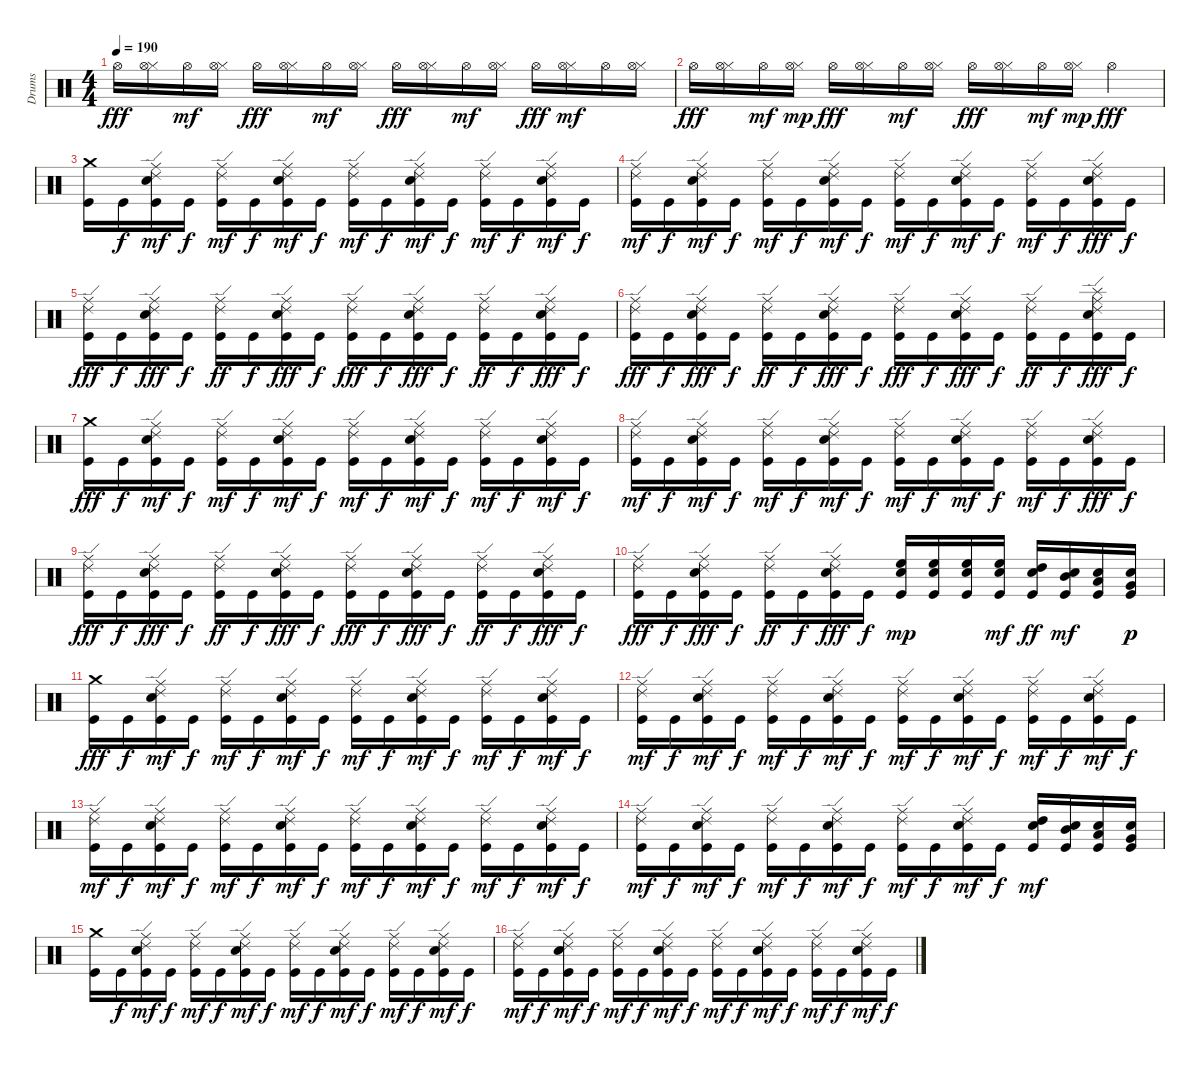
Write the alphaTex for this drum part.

\track ("Drums" "Drums") {instrument percussion}
\staff {score}
\articulation defaults
\ts (4 4)
\tempo 190
\clef neutral
\ks c "Hi-Hat (open)".16{dy fff}
("Hi-Hat (closed)" "Hi-Hat (open)").16 "Hi-Hat (open)".16{dy mf} ("Hi-Hat (closed)" "Hi-Hat (open)").16 "Hi-Hat (open)".16{dy fff} ("Hi-Hat (closed)" "Hi-Hat (open)").16 "Hi-Hat (open)".16{dy mf} ("Hi-Hat (closed)" "Hi-Hat (open)").16 "Hi-Hat (open)".16{dy fff} ("Hi-Hat (closed)" "Hi-Hat (open)").16 "Hi-Hat (open)".16{dy mf} ("Hi-Hat (closed)" "Hi-Hat (open)").16 "Hi-Hat (open)".16{dy fff} ("Hi-Hat (closed)" "Hi-Hat (open)").16{dy mf} "Hi-Hat (open)".16 ("Hi-Hat (closed)" "Hi-Hat (open)").16 |
"Hi-Hat (open)".16{dy fff} ("Hi-Hat (closed)" "Hi-Hat (open)").16 "Hi-Hat (open)".16{dy mf} ("Hi-Hat (closed)" "Hi-Hat (open)").16{dy mp} "Hi-Hat (open)".16{dy fff} ("Hi-Hat (closed)" "Hi-Hat (open)").16 "Hi-Hat (open)".16{dy mf} ("Hi-Hat (closed)" "Hi-Hat (open)").16 "Hi-Hat (open)".16{dy fff} ("Hi-Hat (closed)" "Hi-Hat (open)").16 "Hi-Hat (open)".16{dy mf} ("Hi-Hat (closed)" "Hi-Hat (open)").16{dy mp} "Hi-Hat (open)".4{dy fff} |
("Kick (hit)" "Crash medium (hit)").16 "Kick (hit)".16{dy f} ("Electric Snare (hit)" "Kick (hit)" "Ride (edge) 2" "Ride (middle)").16{dy mf} "Kick (hit)".16{dy f} ("Kick (hit)" "Ride (edge) 2" "Ride (middle)").16{dy mf} "Kick (hit)".16{dy f} ("Electric Snare (hit)" "Kick (hit)" "Ride (edge) 2" "Ride (middle)").16{dy mf} "Kick (hit)".16{dy f} ("Kick (hit)" "Ride (edge) 2" "Ride (middle)").16{dy mf} "Kick (hit)".16{dy f} ("Electric Snare (hit)" "Kick (hit)" "Ride (edge) 2" "Ride (middle)").16{dy mf} "Kick (hit)".16{dy f} ("Kick (hit)" "Ride (edge) 2" "Ride (middle)").16{dy mf} "Kick (hit)".16{dy f} ("Electric Snare (hit)" "Kick (hit)" "Ride (edge) 2" "Ride (middle)").16{dy mf} "Kick (hit)".16{dy f} |
("Kick (hit)" "Ride (middle)" "Ride (edge) 2").16{dy mf} "Kick (hit)".16{dy f} ("Ride (edge) 2" "Ride (middle)" "Kick (hit)" "Electric Snare (hit)").16{dy mf} "Kick (hit)".16{dy f} ("Kick (hit)" "Ride (middle)" "Ride (edge) 2").16{dy mf} "Kick (hit)".16{dy f} ("Electric Snare (hit)" "Kick (hit)" "Ride (edge) 2" "Ride (middle)").16{dy mf} "Kick (hit)".16{dy f} ("Kick (hit)" "Ride (edge) 2" "Ride (middle)").16{dy mf} "Kick (hit)".16{dy f} ("Kick (hit)" "Ride (middle)" "Ride (edge) 2" "Electric Snare (hit)").16{dy mf} "Kick (hit)".16{dy f} ("Kick (hit)" "Ride (edge) 2" "Ride (middle)").16{dy mf} "Kick (hit)".16{dy f} ("Kick (hit)" "Electric Snare (hit)" "Ride (middle)" "Ride (edge) 2").16{dy fff} "Kick (hit)".16{dy f} |
("Ride (edge) 2" "Ride (middle)" "Kick (hit)").16{dy fff} "Kick (hit)".16{dy f} ("Ride (edge) 2" "Ride (middle)" "Electric Snare (hit)" "Kick (hit)").16{dy fff} "Kick (hit)".16{dy f} ("Ride (edge) 2" "Ride (middle)" "Kick (hit)").16{dy ff} "Kick (hit)".16{dy f} ("Electric Snare (hit)" "Kick (hit)" "Ride (middle)" "Ride (edge) 2").16{dy fff} "Kick (hit)".16{dy f} ("Kick (hit)" "Ride (edge) 2" "Ride (middle)").16{dy fff} "Kick (hit)".16{dy f} ("Electric Snare (hit)" "Kick (hit)" "Ride (edge) 2" "Ride (middle)").16{dy fff} "Kick (hit)".16{dy f} ("Kick (hit)" "Ride (edge) 2" "Ride (middle)").16{dy ff} "Kick (hit)".16{dy f} ("Electric Snare (hit)" "Kick (hit)" "Ride (middle)" "Ride (edge) 2").16{dy fff} "Kick (hit)".16{dy f} |
("Kick (hit)" "Ride (edge) 2" "Ride (middle)").16{dy fff} "Kick (hit)".16{dy f} ("Kick (hit)" "Electric Snare (hit)" "Ride (edge) 2" "Ride (middle)").16{dy fff} "Kick (hit)".16{dy f} ("Kick (hit)" "Ride (edge) 2" "Ride (middle)").16{dy ff} "Kick (hit)".16{dy f} ("Electric Snare (hit)" "Kick (hit)" "Ride (middle)" "Ride (edge) 2").16{dy fff} "Kick (hit)".16{dy f} ("Kick (hit)" "Ride (edge) 2" "Ride (middle)").16{dy fff} "Kick (hit)".16{dy f} ("Kick (hit)" "Electric Snare (hit)" "Ride (edge) 2" "Ride (middle)").16{dy fff} "Kick (hit)".16{dy f} ("Kick (hit)" "Ride (edge) 2" "Ride (middle)").16{dy ff} "Kick (hit)".16{dy f} ("Splash (hit)" "Kick (hit)" "Electric Snare (hit)" "Ride (middle)" "Ride (edge) 2").16{dy fff} "Kick (hit)".16{dy f} |
("Kick (hit)" "Crash medium (hit)").16{dy fff} "Kick (hit)".16{dy f} ("Electric Snare (hit)" "Kick (hit)" "Ride (edge) 2" "Ride (middle)").16{dy mf} "Kick (hit)".16{dy f} ("Kick (hit)" "Ride (edge) 2" "Ride (middle)").16{dy mf} "Kick (hit)".16{dy f} ("Electric Snare (hit)" "Kick (hit)" "Ride (edge) 2" "Ride (middle)").16{dy mf} "Kick (hit)".16{dy f} ("Kick (hit)" "Ride (edge) 2" "Ride (middle)").16{dy mf} "Kick (hit)".16{dy f} ("Electric Snare (hit)" "Kick (hit)" "Ride (edge) 2" "Ride (middle)").16{dy mf} "Kick (hit)".16{dy f} ("Kick (hit)" "Ride (edge) 2" "Ride (middle)").16{dy mf} "Kick (hit)".16{dy f} ("Electric Snare (hit)" "Kick (hit)" "Ride (edge) 2" "Ride (middle)").16{dy mf} "Kick (hit)".16{dy f} |
("Kick (hit)" "Ride (middle)" "Ride (edge) 2").16{dy mf} "Kick (hit)".16{dy f} ("Ride (edge) 2" "Ride (middle)" "Kick (hit)" "Electric Snare (hit)").16{dy mf} "Kick (hit)".16{dy f} ("Kick (hit)" "Ride (middle)" "Ride (edge) 2").16{dy mf} "Kick (hit)".16{dy f} ("Electric Snare (hit)" "Kick (hit)" "Ride (edge) 2" "Ride (middle)").16{dy mf} "Kick (hit)".16{dy f} ("Kick (hit)" "Ride (edge) 2" "Ride (middle)").16{dy mf} "Kick (hit)".16{dy f} ("Kick (hit)" "Ride (middle)" "Ride (edge) 2" "Electric Snare (hit)").16{dy mf} "Kick (hit)".16{dy f} ("Kick (hit)" "Ride (edge) 2" "Ride (middle)").16{dy mf} "Kick (hit)".16{dy f} ("Kick (hit)" "Electric Snare (hit)" "Ride (middle)" "Ride (edge) 2").16{dy fff} "Kick (hit)".16{dy f} |
("Ride (edge) 2" "Ride (middle)" "Kick (hit)").16{dy fff} "Kick (hit)".16{dy f} ("Ride (edge) 2" "Ride (middle)" "Electric Snare (hit)" "Kick (hit)").16{dy fff} "Kick (hit)".16{dy f} ("Ride (edge) 2" "Ride (middle)" "Kick (hit)").16{dy ff} "Kick (hit)".16{dy f} ("Electric Snare (hit)" "Kick (hit)" "Ride (middle)" "Ride (edge) 2").16{dy fff} "Kick (hit)".16{dy f} ("Kick (hit)" "Ride (edge) 2" "Ride (middle)").16{dy fff} "Kick (hit)".16{dy f} ("Electric Snare (hit)" "Kick (hit)" "Ride (edge) 2" "Ride (middle)").16{dy fff} "Kick (hit)".16{dy f} ("Kick (hit)" "Ride (edge) 2" "Ride (middle)").16{dy ff} "Kick (hit)".16{dy f} ("Electric Snare (hit)" "Kick (hit)" "Ride (middle)" "Ride (edge) 2").16{dy fff} "Kick (hit)".16{dy f} |
("Kick (hit)" "Ride (edge) 2" "Ride (middle)").16{dy fff} "Kick (hit)".16{dy f} ("Kick (hit)" "Electric Snare (hit)" "Ride (edge) 2" "Ride (middle)").16{dy fff} "Kick (hit)".16{dy f} ("Kick (hit)" "Ride (edge) 2" "Ride (middle)").16{dy ff} "Kick (hit)".16{dy f} ("Electric Snare (hit)" "Kick (hit)" "Ride (middle)" "Ride (edge) 2").16{dy fff} "Kick (hit)".16{dy f} ("High Floor Tom (hit)" "Kick (hit)" "Electric Snare (hit)").16{dy mp} ("Kick (hit)" "High Floor Tom (hit)" "Electric Snare (hit)").16 ("High Floor Tom (hit)" "Kick (hit)" "Electric Snare (hit)").16 ("Kick (hit)" "High Floor Tom (hit)" "Electric Snare (hit)").16{dy mf} ("High Tom (hit)" "Kick (hit)" "Electric Snare (hit)").16{dy ff} ("Kick (hit)" "Mid Tom (hit)" "Electric Snare (hit)").16{dy mf} ("Kick (hit)" "Electric Snare (hit)" "Low Tom (hit)").16 ("Electric Snare (hit)" "Kick (hit)" "Very Low Tom (hit)").16{dy p} |
("Kick (hit)" "Crash medium (hit)").16{dy fff} "Kick (hit)".16{dy f} ("Electric Snare (hit)" "Kick (hit)" "Ride (edge) 2" "Ride (middle)").16{dy mf} "Kick (hit)".16{dy f} ("Kick (hit)" "Ride (edge) 2" "Ride (middle)").16{dy mf} "Kick (hit)".16{dy f} ("Electric Snare (hit)" "Kick (hit)" "Ride (edge) 2" "Ride (middle)").16{dy mf} "Kick (hit)".16{dy f} ("Kick (hit)" "Ride (edge) 2" "Ride (middle)").16{dy mf} "Kick (hit)".16{dy f} ("Electric Snare (hit)" "Kick (hit)" "Ride (edge) 2" "Ride (middle)").16{dy mf} "Kick (hit)".16{dy f} ("Kick (hit)" "Ride (edge) 2" "Ride (middle)").16{dy mf} "Kick (hit)".16{dy f} ("Electric Snare (hit)" "Kick (hit)" "Ride (edge) 2" "Ride (middle)").16{dy mf} "Kick (hit)".16{dy f} |
("Ride (middle)" "Ride (edge) 2" "Kick (hit)").16{dy mf} "Kick (hit)".16{dy f} ("Electric Snare (hit)" "Kick (hit)" "Ride (edge) 2" "Ride (middle)").16{dy mf} "Kick (hit)".16{dy f} ("Kick (hit)" "Ride (edge) 2" "Ride (middle)").16{dy mf} "Kick (hit)".16{dy f} ("Electric Snare (hit)" "Kick (hit)" "Ride (edge) 2" "Ride (middle)").16{dy mf} "Kick (hit)".16{dy f} ("Kick (hit)" "Ride (edge) 2" "Ride (middle)").16{dy mf} "Kick (hit)".16{dy f} ("Electric Snare (hit)" "Kick (hit)" "Ride (edge) 2" "Ride (middle)").16{dy mf} "Kick (hit)".16{dy f} ("Kick (hit)" "Ride (edge) 2" "Ride (middle)").16{dy mf} "Kick (hit)".16{dy f} ("Electric Snare (hit)" "Kick (hit)" "Ride (edge) 2" "Ride (middle)").16{dy mf} "Kick (hit)".16{dy f} |
("Ride (middle)" "Ride (edge) 2" "Kick (hit)").16{dy mf} "Kick (hit)".16{dy f} ("Electric Snare (hit)" "Kick (hit)" "Ride (edge) 2" "Ride (middle)").16{dy mf} "Kick (hit)".16{dy f} ("Kick (hit)" "Ride (edge) 2" "Ride (middle)").16{dy mf} "Kick (hit)".16{dy f} ("Electric Snare (hit)" "Kick (hit)" "Ride (edge) 2" "Ride (middle)").16{dy mf} "Kick (hit)".16{dy f} ("Kick (hit)" "Ride (edge) 2" "Ride (middle)").16{dy mf} "Kick (hit)".16{dy f} ("Electric Snare (hit)" "Kick (hit)" "Ride (edge) 2" "Ride (middle)").16{dy mf} "Kick (hit)".16{dy f} ("Kick (hit)" "Ride (edge) 2" "Ride (middle)").16{dy mf} "Kick (hit)".16{dy f} ("Electric Snare (hit)" "Kick (hit)" "Ride (edge) 2" "Ride (middle)").16{dy mf} "Kick (hit)".16{dy f} |
("Ride (middle)" "Ride (edge) 2" "Kick (hit)").16{dy mf} "Kick (hit)".16{dy f} ("Electric Snare (hit)" "Kick (hit)" "Ride (edge) 2" "Ride (middle)").16{dy mf} "Kick (hit)".16{dy f} ("Kick (hit)" "Ride (edge) 2" "Ride (middle)").16{dy mf} "Kick (hit)".16{dy f} ("Electric Snare (hit)" "Kick (hit)" "Ride (edge) 2" "Ride (middle)").16{dy mf} "Kick (hit)".16{dy f} ("Kick (hit)" "Ride (edge) 2" "Ride (middle)").16{dy mf} "Kick (hit)".16{dy f} ("Electric Snare (hit)" "Kick (hit)" "Ride (edge) 2" "Ride (middle)").16{dy mf} "Kick (hit)".16{dy f} ("Electric Snare (hit)" "Kick (hit)" "High Tom (hit)").16{dy mf} ("Electric Snare (hit)" "Kick (hit)" "Mid Tom (hit)").16 ("Electric Snare (hit)" "Kick (hit)" "Low Tom (hit)").16 ("Electric Snare (hit)" "Kick (hit)" "Very Low Tom (hit)").16 |
("Kick (hit)" "Crash medium (hit)").16 "Kick (hit)".16{dy f} ("Electric Snare (hit)" "Kick (hit)" "Ride (edge) 2" "Ride (middle)").16{dy mf} "Kick (hit)".16{dy f} ("Kick (hit)" "Ride (edge) 2" "Ride (middle)").16{dy mf} "Kick (hit)".16{dy f} ("Electric Snare (hit)" "Kick (hit)" "Ride (edge) 2" "Ride (middle)").16{dy mf} "Kick (hit)".16{dy f} ("Kick (hit)" "Ride (edge) 2" "Ride (middle)").16{dy mf} "Kick (hit)".16{dy f} ("Electric Snare (hit)" "Kick (hit)" "Ride (edge) 2" "Ride (middle)").16{dy mf} "Kick (hit)".16{dy f} ("Kick (hit)" "Ride (edge) 2" "Ride (middle)").16{dy mf} "Kick (hit)".16{dy f} ("Electric Snare (hit)" "Kick (hit)" "Ride (edge) 2" "Ride (middle)").16{dy mf} "Kick (hit)".16{dy f} |
("Ride (middle)" "Ride (edge) 2" "Kick (hit)").16{dy mf} "Kick (hit)".16{dy f} ("Electric Snare (hit)" "Kick (hit)" "Ride (edge) 2" "Ride (middle)").16{dy mf} "Kick (hit)".16{dy f} ("Kick (hit)" "Ride (edge) 2" "Ride (middle)").16{dy mf} "Kick (hit)".16{dy f} ("Electric Snare (hit)" "Kick (hit)" "Ride (edge) 2" "Ride (middle)").16{dy mf} "Kick (hit)".16{dy f} ("Kick (hit)" "Ride (edge) 2" "Ride (middle)").16{dy mf} "Kick (hit)".16{dy f} ("Electric Snare (hit)" "Kick (hit)" "Ride (edge) 2" "Ride (middle)").16{dy mf} "Kick (hit)".16{dy f} ("Kick (hit)" "Ride (edge) 2" "Ride (middle)").16{dy mf} "Kick (hit)".16{dy f} ("Electric Snare (hit)" "Kick (hit)" "Ride (edge) 2" "Ride (middle)").16{dy mf} "Kick (hit)".16{dy f}
